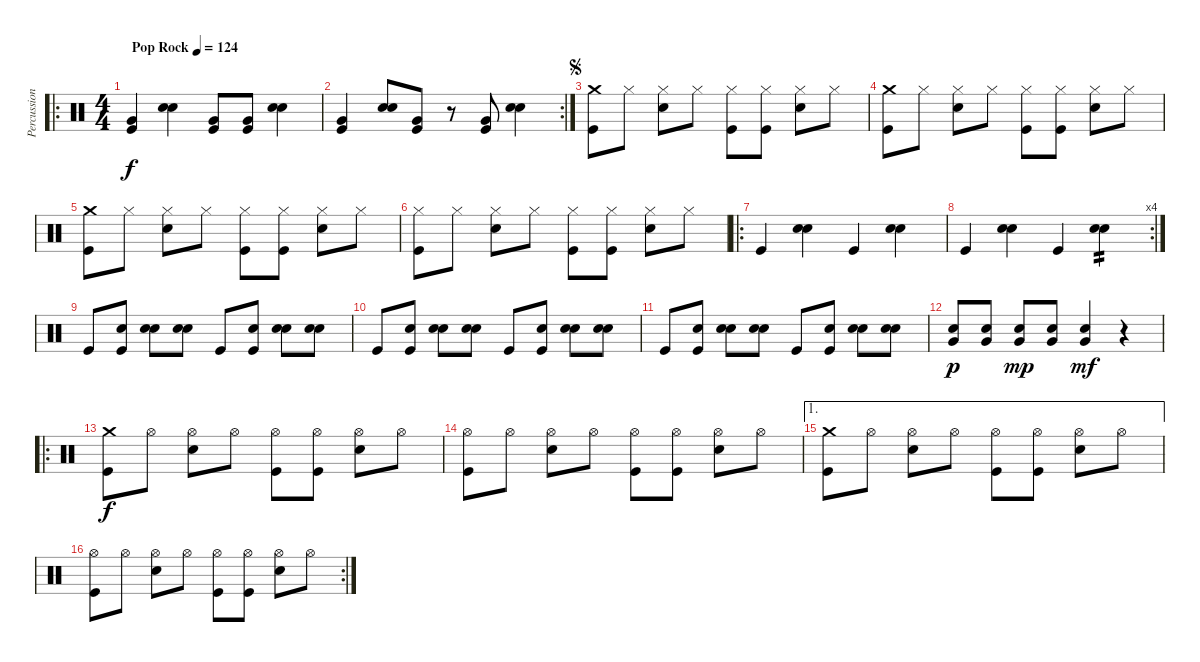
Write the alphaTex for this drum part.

\track ("Percussion" "Percussion") {instrument percussion}
\staff {score}
\articulation defaults
\ro
\ts (4 4)
\tempo (124 "Pop Rock")
\clef neutral
\ks c
("Kick (hit)" "Very Low Tom (hit)").4{dy f} ("Snare (hit) 2" "Hand Clap (hit)").4 ("Kick (hit)" "Very Low Tom (hit)").8 ("Kick (hit)" "Very Low Tom (hit)").8 ("Snare (hit) 2" "Hand Clap (hit)").4 |
\rc 2
("Kick (hit)" "Very Low Tom (hit)").4 ("Snare (hit) 2" "Hand Clap (hit)").8 ("Kick (hit)" "Very Low Tom (hit)").8 r.8 ("Kick (hit)" "Very Low Tom (hit)").8 ("Snare (hit) 2" "Hand Clap (hit)").4 |
\jump segno
("Crash medium (hit)" "Kick (hit)").8 "Hi-Hat (closed)".8 ("Hi-Hat (closed)" "Snare (hit) 2").8 "Hi-Hat (closed)".8 ("Hi-Hat (closed)" "Kick (hit)").8 ("Hi-Hat (closed)" "Kick (hit)").8 ("Hi-Hat (closed)" "Snare (hit) 2").8 "Hi-Hat (closed)".8 |
("Crash medium (hit)" "Kick (hit)").8 "Hi-Hat (closed)".8 ("Hi-Hat (closed)" "Snare (hit) 2").8 "Hi-Hat (closed)".8 ("Hi-Hat (closed)" "Kick (hit)").8 ("Hi-Hat (closed)" "Kick (hit)").8 ("Hi-Hat (closed)" "Snare (hit) 2").8 "Hi-Hat (closed)".8 |
("Crash medium (hit)" "Kick (hit)").8 "Hi-Hat (closed)".8 ("Hi-Hat (closed)" "Snare (hit) 2").8 "Hi-Hat (closed)".8 ("Hi-Hat (closed)" "Kick (hit)").8 ("Hi-Hat (closed)" "Kick (hit)").8 ("Hi-Hat (closed)" "Snare (hit) 2").8 "Hi-Hat (closed)".8 |
("Hi-Hat (closed)" "Kick (hit)").8 "Hi-Hat (closed)".8 ("Hi-Hat (closed)" "Snare (hit) 2").8 "Hi-Hat (closed)".8 ("Hi-Hat (closed)" "Kick (hit)").8 ("Hi-Hat (closed)" "Kick (hit)").8 ("Hi-Hat (closed)" "Snare (hit) 2").8 "Hi-Hat (closed)".8 |
\ro "Kick (hit)".4
("Snare (hit) 2" "Hand Clap (hit)").4 "Kick (hit)".4 ("Snare (hit) 2" "Hand Clap (hit)").4 |
\rc 4 "Kick (hit)".4
("Snare (hit) 2" "Hand Clap (hit)").4 "Kick (hit)".4 ("Snare (hit) 2" "Hand Clap (hit)").4{tp 2} |
"Kick (hit)".8 ("Kick (hit)" "Hand Clap (hit)").8 ("Snare (hit) 2" "Hand Clap (hit)").8 ("Snare (hit) 2" "Hand Clap (hit)").8 "Kick (hit)".8 ("Kick (hit)" "Hand Clap (hit)").8 ("Snare (hit) 2" "Hand Clap (hit)").8 ("Snare (hit) 2" "Hand Clap (hit)").8 |
"Kick (hit)".8 ("Kick (hit)" "Hand Clap (hit)").8 ("Snare (hit) 2" "Hand Clap (hit)").8 ("Snare (hit) 2" "Hand Clap (hit)").8 "Kick (hit)".8 ("Kick (hit)" "Hand Clap (hit)").8 ("Snare (hit) 2" "Hand Clap (hit)").8 ("Snare (hit) 2" "Hand Clap (hit)").8 |
"Kick (hit)".8 ("Kick (hit)" "Hand Clap (hit)").8 ("Snare (hit) 2" "Hand Clap (hit)").8 ("Snare (hit) 2" "Hand Clap (hit)").8 "Kick (hit)".8 ("Kick (hit)" "Hand Clap (hit)").8 ("Snare (hit) 2" "Hand Clap (hit)").8 ("Snare (hit) 2" "Hand Clap (hit)").8 |
("Snare (hit) 2" "Very Low Tom (hit)").8{dy p} ("Snare (hit) 2" "Very Low Tom (hit)").8 ("Snare (hit) 2" "Very Low Tom (hit)").8{dy mp} ("Snare (hit) 2" "Very Low Tom (hit)").8 ("Snare (hit) 2" "Very Low Tom (hit)").4{dy mf} r.4 |
\ro
("Crash medium (hit)" "Kick (hit)").8{dy f} "Hi-Hat (open)".8 ("Hi-Hat (open)" "Snare (hit) 2").8 "Hi-Hat (open)".8 ("Hi-Hat (open)" "Kick (hit)").8 ("Hi-Hat (open)" "Kick (hit)").8 ("Hi-Hat (open)" "Snare (hit) 2").8 "Hi-Hat (open)".8 |
("Hi-Hat (open)" "Kick (hit)").8 "Hi-Hat (open)".8 ("Hi-Hat (open)" "Snare (hit) 2").8 "Hi-Hat (open)".8 ("Hi-Hat (open)" "Kick (hit)").8 ("Hi-Hat (open)" "Kick (hit)").8 ("Hi-Hat (open)" "Snare (hit) 2").8 "Hi-Hat (open)".8 |
\ae 1
("Crash medium (hit)" "Kick (hit)").8 "Hi-Hat (open)".8 ("Hi-Hat (open)" "Snare (hit) 2").8 "Hi-Hat (open)".8 ("Hi-Hat (open)" "Kick (hit)").8 ("Hi-Hat (open)" "Kick (hit)").8 ("Hi-Hat (open)" "Snare (hit) 2").8 "Hi-Hat (open)".8 |
\rc 2
("Hi-Hat (open)" "Kick (hit)").8 "Hi-Hat (open)".8 ("Hi-Hat (open)" "Snare (hit) 2").8 "Hi-Hat (open)".8 ("Hi-Hat (open)" "Kick (hit)").8 ("Hi-Hat (open)" "Kick (hit)").8 ("Hi-Hat (open)" "Snare (hit) 2").8 "Hi-Hat (open)".8
